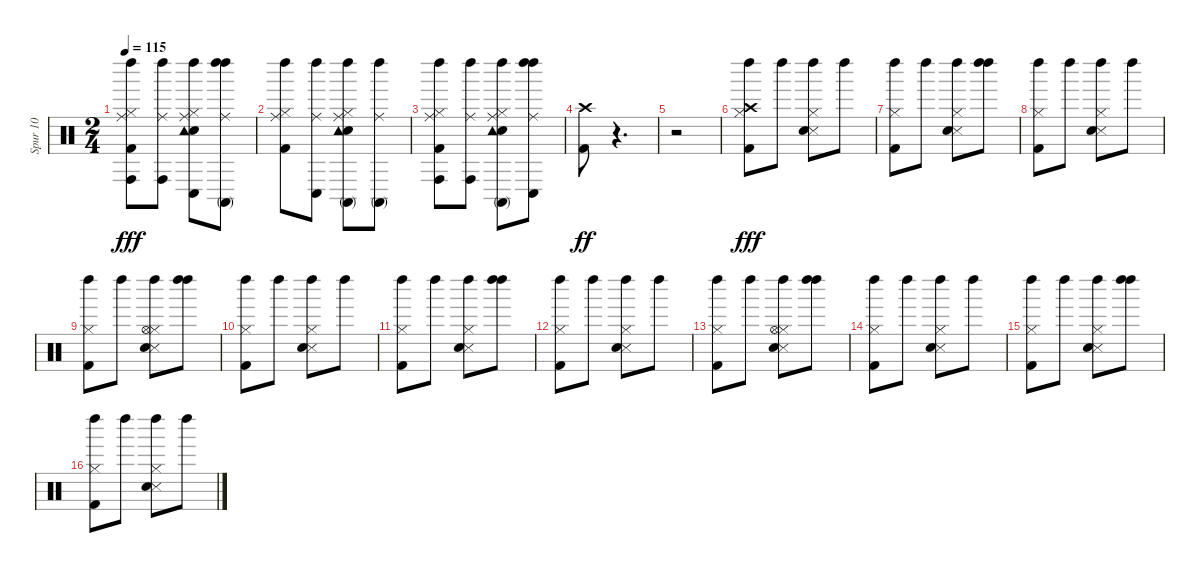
\track ("Spur 10" "Spur 10") {instrument percussion}
\staff {score}
\articulation defaults
\ts (2 4)
\tempo 115
\clef neutral
\ks c
("Left Maraca (hit)" "Hi-Hat (closed)" "Kick (hit) 2" "Conga high (hit)" "Ride (middle)").8{dy fff} ("Left Maraca (hit)" "Conga high (hit)" "Ride (middle)").8 ("Left Maraca (hit)" "Hi-Hat (closed)" "Electric Snare (hit)" "Tambourine (hit)" "Conga low (hit)" "Ride (middle)").8 ("Left Maraca (hit)" "Ride (middle)" "Left Maraca (hit)" "Conga high (mute)").8 |
("Left Maraca (hit)" "Hi-Hat (closed)" "Kick (hit) 2" "Ride (middle)").8 ("Left Maraca (hit)" "Conga low (hit)" "Ride (middle)").8 ("Left Maraca (hit)" "Hi-Hat (closed)" "Electric Snare (hit)" "Tambourine (hit)" "Conga high (mute)" "Ride (middle)").8 ("Ride (middle)" "Left Maraca (hit)" "Conga high (mute)").8 |
("Left Maraca (hit)" "Hi-Hat (closed)" "Kick (hit) 2" "Conga high (hit)" "Ride (middle)").8 ("Left Maraca (hit)" "Conga high (hit)" "Ride (middle)").8 ("Left Maraca (hit)" "Hi-Hat (closed)" "Electric Snare (hit)" "Tambourine (hit)" "Conga high (mute)" "Ride (middle)").8 ("Left Maraca (hit)" "Ride (middle)" "Left Maraca (hit)" "Conga low (hit)").8 |
("Kick (hit) 2" "Crash high (hit)").8{dy ff} r.4{d} |
r.2 |
("Hi-Hat (closed)" "Kick (hit) 2" "Crash high (hit)" "Left Maraca (hit)").8{dy fff} "Left Maraca (hit)".8 ("Hi-Hat (closed)" "Snare (side stick) 3" "Left Maraca (hit)" "Electric Snare (hit)").8 "Left Maraca (hit)".8 |
("Left Maraca (hit)" "Kick (hit) 2" "Hi-Hat (closed)").8 "Left Maraca (hit)".8 ("Hi-Hat (closed)" "Snare (side stick) 3" "Left Maraca (hit)" "Electric Snare (hit)").8 ("Left Maraca (hit)" "Left Maraca (hit)").8 |
("Kick (hit) 2" "Hi-Hat (closed)" "Left Maraca (hit)").8 "Left Maraca (hit)".8 ("Snare (side stick) 3" "Hi-Hat (closed)" "Left Maraca (hit)" "Electric Snare (hit)").8 "Left Maraca (hit)".8 |
("Kick (hit) 2" "Hi-Hat (closed)" "Left Maraca (hit)").8 "Left Maraca (hit)".8 ("Snare (side stick) 3" "Hi-Hat (closed)" "Hi-Hat (open)" "Left Maraca (hit)" "Electric Snare (hit)").8 ("Left Maraca (hit)" "Left Maraca (hit)").8 |
("Hi-Hat (closed)" "Kick (hit) 2" "Left Maraca (hit)").8 "Left Maraca (hit)".8 ("Hi-Hat (closed)" "Snare (side stick) 3" "Left Maraca (hit)" "Electric Snare (hit)").8 "Left Maraca (hit)".8 |
("Left Maraca (hit)" "Kick (hit) 2" "Hi-Hat (closed)").8 "Left Maraca (hit)".8 ("Hi-Hat (closed)" "Snare (side stick) 3" "Left Maraca (hit)" "Electric Snare (hit)").8 ("Left Maraca (hit)" "Left Maraca (hit)").8 |
("Kick (hit) 2" "Hi-Hat (closed)" "Left Maraca (hit)").8 "Left Maraca (hit)".8 ("Snare (side stick) 3" "Hi-Hat (closed)" "Left Maraca (hit)" "Electric Snare (hit)").8 "Left Maraca (hit)".8 |
("Kick (hit) 2" "Hi-Hat (closed)" "Left Maraca (hit)").8 "Left Maraca (hit)".8 ("Snare (side stick) 3" "Hi-Hat (closed)" "Hi-Hat (open)" "Left Maraca (hit)" "Electric Snare (hit)").8 ("Left Maraca (hit)" "Left Maraca (hit)").8 |
("Hi-Hat (closed)" "Kick (hit) 2" "Left Maraca (hit)").8 "Left Maraca (hit)".8 ("Left Maraca (hit)" "Hi-Hat (closed)" "Snare (side stick) 3" "Electric Snare (hit)").8 "Left Maraca (hit)".8 |
("Left Maraca (hit)" "Kick (hit) 2" "Hi-Hat (closed)").8 "Left Maraca (hit)".8 ("Hi-Hat (closed)" "Snare (side stick) 3" "Left Maraca (hit)" "Electric Snare (hit)").8 ("Left Maraca (hit)" "Left Maraca (hit)").8 |
("Kick (hit) 2" "Hi-Hat (closed)" "Left Maraca (hit)").8 "Left Maraca (hit)".8 ("Left Maraca (hit)" "Snare (side stick) 3" "Hi-Hat (closed)" "Electric Snare (hit)").8 "Left Maraca (hit)".8
